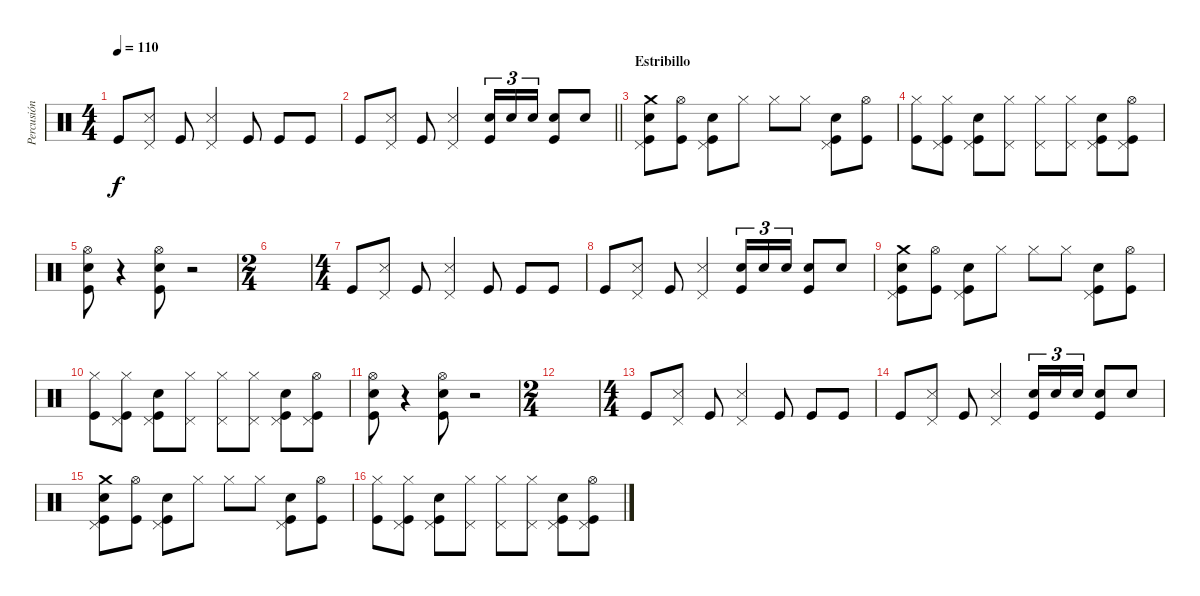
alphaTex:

\track ("Percusión" "Percusión") {instrument percussion}
\staff {score}
\articulation defaults
\ts (4 4)
\tempo 110
\clef neutral
\ks c "Kick (hit)".8{dy f}
("Metronome (hit)" "Pedal Hi-Hat (hit)").8 "Kick (hit)".8 ("Metronome (hit)" "Pedal Hi-Hat (hit)").4 "Kick (hit)".8 "Kick (hit)".8 "Kick (hit)".8 |
\barLineRight lightlight "Kick (hit)".8
("Metronome (hit)" "Pedal Hi-Hat (hit)").8 "Kick (hit)".8 ("Metronome (hit)" "Pedal Hi-Hat (hit)").4 ("Electric Snare (hit)" "Kick (hit)").16{tu (3 2)} "Electric Snare (hit)".16{tu (3 2)} "Electric Snare (hit)".16{tu (3 2)} ("Electric Snare (hit)" "Kick (hit)").8 "Electric Snare (hit)".8 |
\section ("" "Estribillo")
("Crash medium (hit)" "Electric Snare (hit)" "Kick (hit)" "Pedal Hi-Hat (hit)").8 ("Hi-Hat (open)" "Kick (hit)").8 ("Electric Snare (hit)" "Kick (hit)" "Pedal Hi-Hat (hit)").8 "Hi-Hat (closed)".8 "Hi-Hat (closed)".8 "Hi-Hat (closed)".8 ("Electric Snare (hit)" "Kick (hit)" "Pedal Hi-Hat (hit)").8 ("Hi-Hat (open)" "Kick (hit)").8 |
("Hi-Hat (closed)" "Kick (hit)").8 ("Hi-Hat (closed)" "Kick (hit)" "Pedal Hi-Hat (hit)").8 ("Electric Snare (hit)" "Kick (hit)" "Pedal Hi-Hat (hit)").8 ("Hi-Hat (closed)" "Pedal Hi-Hat (hit)").8 ("Hi-Hat (closed)" "Pedal Hi-Hat (hit)").8 ("Hi-Hat (closed)" "Pedal Hi-Hat (hit)").8 ("Electric Snare (hit)" "Kick (hit)" "Pedal Hi-Hat (hit)").8 ("Hi-Hat (open)" "Kick (hit)" "Pedal Hi-Hat (hit)").8 |
("Hi-Hat (open)" "Electric Snare (hit)" "Kick (hit)").8 r.4 ("Hi-Hat (open)" "Electric Snare (hit)" "Kick (hit)").8 r.2 |
\ts (2 4)
|
\ts (4 4)
"Kick (hit)".8 ("Metronome (hit)" "Pedal Hi-Hat (hit)").8 "Kick (hit)".8 ("Metronome (hit)" "Pedal Hi-Hat (hit)").4 "Kick (hit)".8 "Kick (hit)".8 "Kick (hit)".8 |
"Kick (hit)".8 ("Metronome (hit)" "Pedal Hi-Hat (hit)").8 "Kick (hit)".8 ("Metronome (hit)" "Pedal Hi-Hat (hit)").4 ("Electric Snare (hit)" "Kick (hit)").16{tu (3 2)} "Electric Snare (hit)".16{tu (3 2)} "Electric Snare (hit)".16{tu (3 2)} ("Electric Snare (hit)" "Kick (hit)").8 "Electric Snare (hit)".8 |
("Crash medium (hit)" "Electric Snare (hit)" "Kick (hit)" "Pedal Hi-Hat (hit)").8 ("Hi-Hat (open)" "Kick (hit)").8 ("Electric Snare (hit)" "Kick (hit)" "Pedal Hi-Hat (hit)").8 "Hi-Hat (closed)".8 "Hi-Hat (closed)".8 "Hi-Hat (closed)".8 ("Electric Snare (hit)" "Kick (hit)" "Pedal Hi-Hat (hit)").8 ("Hi-Hat (open)" "Kick (hit)").8 |
("Hi-Hat (closed)" "Kick (hit)").8 ("Hi-Hat (closed)" "Kick (hit)" "Pedal Hi-Hat (hit)").8 ("Electric Snare (hit)" "Kick (hit)" "Pedal Hi-Hat (hit)").8 ("Hi-Hat (closed)" "Pedal Hi-Hat (hit)").8 ("Hi-Hat (closed)" "Pedal Hi-Hat (hit)").8 ("Hi-Hat (closed)" "Pedal Hi-Hat (hit)").8 ("Electric Snare (hit)" "Kick (hit)" "Pedal Hi-Hat (hit)").8 ("Hi-Hat (open)" "Kick (hit)" "Pedal Hi-Hat (hit)").8 |
("Hi-Hat (open)" "Electric Snare (hit)" "Kick (hit)").8 r.4 ("Hi-Hat (open)" "Electric Snare (hit)" "Kick (hit)").8 r.2 |
\ts (2 4)
|
\ts (4 4)
"Kick (hit)".8 ("Metronome (hit)" "Pedal Hi-Hat (hit)").8 "Kick (hit)".8 ("Metronome (hit)" "Pedal Hi-Hat (hit)").4 "Kick (hit)".8 "Kick (hit)".8 "Kick (hit)".8 |
"Kick (hit)".8 ("Metronome (hit)" "Pedal Hi-Hat (hit)").8 "Kick (hit)".8 ("Metronome (hit)" "Pedal Hi-Hat (hit)").4 ("Electric Snare (hit)" "Kick (hit)").16{tu (3 2)} "Electric Snare (hit)".16{tu (3 2)} "Electric Snare (hit)".16{tu (3 2)} ("Electric Snare (hit)" "Kick (hit)").8 "Electric Snare (hit)".8 |
("Crash medium (hit)" "Electric Snare (hit)" "Kick (hit)" "Pedal Hi-Hat (hit)").8 ("Hi-Hat (open)" "Kick (hit)").8 ("Electric Snare (hit)" "Kick (hit)" "Pedal Hi-Hat (hit)").8 "Hi-Hat (closed)".8 "Hi-Hat (closed)".8 "Hi-Hat (closed)".8 ("Electric Snare (hit)" "Kick (hit)" "Pedal Hi-Hat (hit)").8 ("Hi-Hat (open)" "Kick (hit)").8 |
("Hi-Hat (closed)" "Kick (hit)").8 ("Hi-Hat (closed)" "Kick (hit)" "Pedal Hi-Hat (hit)").8 ("Electric Snare (hit)" "Kick (hit)" "Pedal Hi-Hat (hit)").8 ("Hi-Hat (closed)" "Pedal Hi-Hat (hit)").8 ("Hi-Hat (closed)" "Pedal Hi-Hat (hit)").8 ("Hi-Hat (closed)" "Pedal Hi-Hat (hit)").8 ("Electric Snare (hit)" "Kick (hit)" "Pedal Hi-Hat (hit)").8 ("Hi-Hat (open)" "Kick (hit)" "Pedal Hi-Hat (hit)").8
